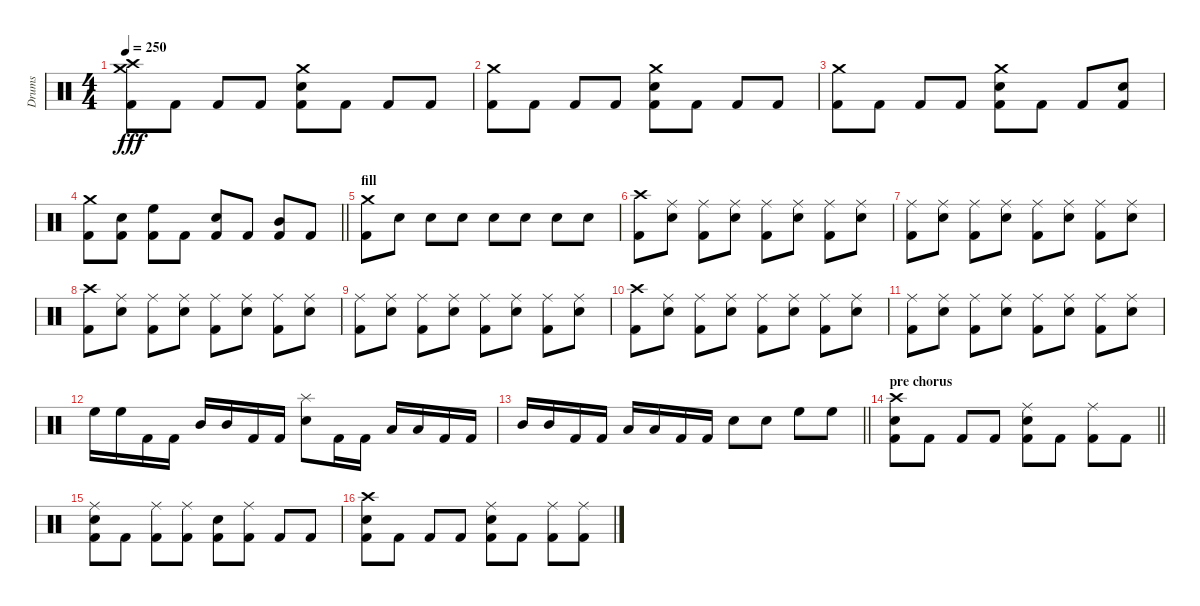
\track ("Drums" "Drums") {solo instrument percussion}
\staff {score}
\articulation defaults
\ts (4 4)
\tempo 250
\clef neutral
\ks c
("Crash medium (hit)" "Crash high (hit)" "Kick (hit) 2").8{dy fff} "Kick (hit) 2".8 "Kick (hit) 2".8 "Kick (hit) 2".8 ("Crash medium (hit)" "Snare (hit) 2" "Kick (hit) 2").8 "Kick (hit) 2".8 "Kick (hit) 2".8 "Kick (hit) 2".8 |
("Crash medium (hit)" "Kick (hit) 2").8 "Kick (hit) 2".8 "Kick (hit) 2".8 "Kick (hit) 2".8 ("Crash medium (hit)" "Snare (hit) 2" "Kick (hit) 2").8 "Kick (hit) 2".8 "Kick (hit) 2".8 "Kick (hit) 2".8 |
("Crash medium (hit)" "Kick (hit) 2").8 "Kick (hit) 2".8 "Kick (hit) 2".8 "Kick (hit) 2".8 ("Crash medium (hit)" "Snare (hit) 2" "Kick (hit) 2").8 "Kick (hit) 2".8 "Kick (hit) 2".8 ("Snare (hit) 2" "Kick (hit) 2").8 |
\barLineRight lightlight
("Crash medium (hit)" "Kick (hit) 2").8 ("Snare (hit) 2" "Kick (hit) 2").8 ("High Floor Tom (hit)" "Kick (hit) 2").8 "Kick (hit) 2".8 ("Snare (hit) 2" "Kick (hit) 2").8 "Kick (hit) 2".8 ("Mid Tom (hit)" "Kick (hit) 2").8 "Kick (hit) 2".8 |
\section ("" "fill")
("Crash medium (hit)" "Kick (hit) 2").8 "Snare (hit) 2".8 "Snare (hit) 2".8 "Snare (hit) 2".8 "Snare (hit) 2".8 "Snare (hit) 2".8 "Snare (hit) 2".8 "Snare (hit) 2".8 |
("Crash high (hit)" "Kick (hit) 2").8 ("Ride (middle)" "Snare (hit) 2").8 ("Ride (middle)" "Kick (hit) 2").8 ("Ride (middle)" "Snare (hit) 2").8 ("Ride (middle)" "Kick (hit) 2").8 ("Ride (middle)" "Snare (hit) 2").8 ("Ride (middle)" "Kick (hit) 2").8 ("Ride (middle)" "Snare (hit) 2").8 |
("Ride (middle)" "Kick (hit) 2").8 ("Ride (middle)" "Snare (hit) 2").8 ("Ride (middle)" "Kick (hit) 2").8 ("Ride (middle)" "Snare (hit) 2").8 ("Ride (middle)" "Kick (hit) 2").8 ("Ride (middle)" "Snare (hit) 2").8 ("Ride (middle)" "Kick (hit) 2").8 ("Ride (middle)" "Snare (hit) 2").8 |
("Crash high (hit)" "Kick (hit) 2").8 ("Ride (middle)" "Snare (hit) 2").8 ("Ride (middle)" "Kick (hit) 2").8 ("Ride (middle)" "Snare (hit) 2").8 ("Ride (middle)" "Kick (hit) 2").8 ("Ride (middle)" "Snare (hit) 2").8 ("Ride (middle)" "Kick (hit) 2").8 ("Ride (middle)" "Snare (hit) 2").8 |
("Ride (middle)" "Kick (hit) 2").8 ("Ride (middle)" "Snare (hit) 2").8 ("Ride (middle)" "Kick (hit) 2").8 ("Ride (middle)" "Snare (hit) 2").8 ("Ride (middle)" "Kick (hit) 2").8 ("Ride (middle)" "Snare (hit) 2").8 ("Ride (middle)" "Kick (hit) 2").8 ("Ride (middle)" "Snare (hit) 2").8 |
("Crash high (hit)" "Kick (hit) 2").8 ("Ride (middle)" "Snare (hit) 2").8 ("Ride (middle)" "Kick (hit) 2").8 ("Ride (middle)" "Snare (hit) 2").8 ("Ride (middle)" "Kick (hit) 2").8 ("Ride (middle)" "Snare (hit) 2").8 ("Ride (middle)" "Kick (hit) 2").8 ("Ride (middle)" "Snare (hit) 2").8 |
("Ride (middle)" "Kick (hit) 2").8 ("Ride (middle)" "Snare (hit) 2").8 ("Ride (middle)" "Kick (hit) 2").8 ("Ride (middle)" "Snare (hit) 2").8 ("Ride (middle)" "Kick (hit) 2").8 ("Ride (middle)" "Snare (hit) 2").8 ("Ride (middle)" "Kick (hit) 2").8 ("Ride (middle)" "Snare (hit) 2").8 |
"High Floor Tom (hit)".16 "High Floor Tom (hit)".16 "Kick (hit) 2".16 "Kick (hit) 2".16 "Mid Tom (hit)".16 "Mid Tom (hit)".16 "Kick (hit) 2".16 "Kick (hit) 2".16 ("Splash (hit)" "Snare (hit) 2").8 "Kick (hit) 2".16 "Kick (hit) 2".16 "Low Tom (hit)".16 "Low Tom (hit)".16 "Kick (hit) 2".16 "Kick (hit) 2".16 |
\barLineRight lightlight "Mid Tom (hit)".16 "Mid Tom (hit)".16 "Kick (hit) 2".16 "Kick (hit) 2".16 "Low Tom (hit)".16 "Low Tom (hit)".16 "Kick (hit) 2".16 "Kick (hit) 2".16 "Snare (hit) 2".8 "Snare (hit) 2".8 "High Floor Tom (hit)".8 "High Floor Tom (hit)".8
|
\section ("" "pre chorus")
\barLineRight lightlight
("Crash high (hit)" "Snare (hit) 2" "Kick (hit) 2").8 "Kick (hit) 2".8 "Kick (hit) 2".8 "Kick (hit) 2".8 ("Ride (middle)" "Snare (hit) 2" "Kick (hit) 2").8 "Kick (hit) 2".8 ("Ride (middle)" "Kick (hit) 2").8 "Kick (hit) 2".8 |
("Ride (middle)" "Snare (hit) 2" "Kick (hit) 2").8 "Kick (hit) 2".8 ("Ride (middle)" "Kick (hit) 2").8 ("Ride (middle)" "Kick (hit) 2").8 ("Snare (hit) 2" "Kick (hit) 2").8 ("Ride (middle)" "Kick (hit) 2").8 "Kick (hit) 2".8 "Kick (hit) 2".8 |
("Crash high (hit)" "Snare (hit) 2" "Kick (hit) 2").8 "Kick (hit) 2".8 "Kick (hit) 2".8 "Kick (hit) 2".8 ("Ride (middle)" "Snare (hit) 2" "Kick (hit) 2").8 "Kick (hit) 2".8 ("Ride (middle)" "Kick (hit) 2").8 ("Ride (middle)" "Kick (hit) 2").8
